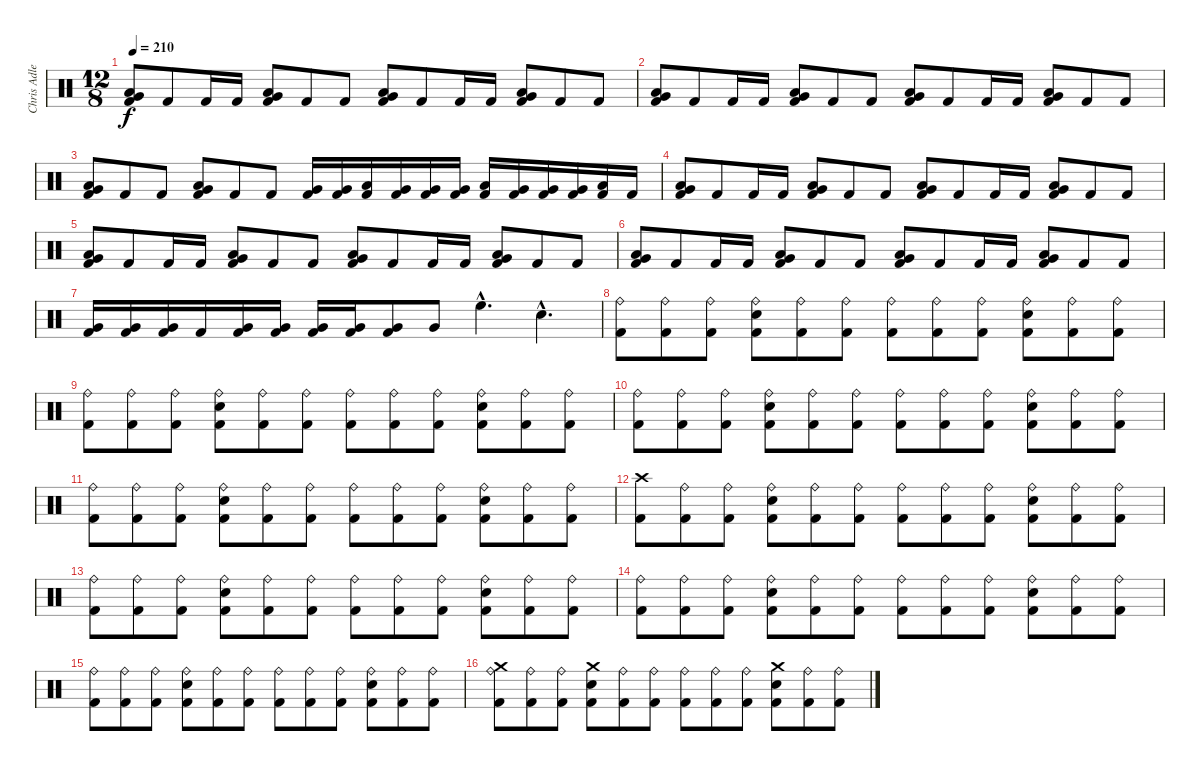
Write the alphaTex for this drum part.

\track ("Chris Adler" "Chris Adle") {instrument percussion}
\staff {score}
\articulation defaults
\ts (12 8)
\tempo 210
\clef neutral
\ks c
("Very Low Tom (hit)" "Low Tom (hit)" "Kick (hit) 2").8{dy f} "Kick (hit) 2".8 "Kick (hit) 2".16 "Kick (hit) 2".16 ("Very Low Tom (hit)" "Low Tom (hit)" "Kick (hit) 2").8 "Kick (hit) 2".8 "Kick (hit) 2".8 ("Very Low Tom (hit)" "Low Tom (hit)" "Kick (hit) 2").8 "Kick (hit) 2".8 "Kick (hit) 2".16 "Kick (hit) 2".16 ("Very Low Tom (hit)" "Low Tom (hit)" "Kick (hit) 2").8 "Kick (hit) 2".8 "Kick (hit) 2".8 |
("Very Low Tom (hit)" "Low Tom (hit)" "Kick (hit) 2").8 "Kick (hit) 2".8 "Kick (hit) 2".16 "Kick (hit) 2".16 ("Very Low Tom (hit)" "Low Tom (hit)" "Kick (hit) 2").8 "Kick (hit) 2".8 "Kick (hit) 2".8 ("Very Low Tom (hit)" "Low Tom (hit)" "Kick (hit) 2").8 "Kick (hit) 2".8 "Kick (hit) 2".16 "Kick (hit) 2".16 ("Very Low Tom (hit)" "Low Tom (hit)" "Kick (hit) 2").8 "Kick (hit) 2".8 "Kick (hit) 2".8 |
("Very Low Tom (hit)" "Low Tom (hit)" "Kick (hit) 2").8 "Kick (hit) 2".8 "Kick (hit) 2".8 ("Very Low Tom (hit)" "Low Tom (hit)" "Kick (hit) 2").8 "Kick (hit) 2".8 "Kick (hit) 2".8 ("Very Low Tom (hit)" "Kick (hit) 2").16 ("Very Low Tom (hit)" "Kick (hit) 2").16 ("Low Tom (hit)" "Kick (hit) 2").16 ("Very Low Tom (hit)" "Kick (hit) 2").16 ("Very Low Tom (hit)" "Kick (hit) 2").16 ("Very Low Tom (hit)" "Kick (hit) 2").16 ("Low Tom (hit)" "Kick (hit) 2").16 ("Very Low Tom (hit)" "Kick (hit) 2").16 ("Very Low Tom (hit)" "Kick (hit) 2").16 ("Very Low Tom (hit)" "Kick (hit) 2").16 ("Low Tom (hit)" "Kick (hit) 2").16 "Kick (hit) 2".16 |
("Very Low Tom (hit)" "Low Tom (hit)" "Kick (hit) 2").8 "Kick (hit) 2".8 "Kick (hit) 2".16 "Kick (hit) 2".16 ("Very Low Tom (hit)" "Low Tom (hit)" "Kick (hit) 2").8 "Kick (hit) 2".8 "Kick (hit) 2".8 ("Very Low Tom (hit)" "Low Tom (hit)" "Kick (hit) 2").8 "Kick (hit) 2".8 "Kick (hit) 2".16 "Kick (hit) 2".16 ("Very Low Tom (hit)" "Low Tom (hit)" "Kick (hit) 2").8 "Kick (hit) 2".8 "Kick (hit) 2".8 |
("Very Low Tom (hit)" "Low Tom (hit)" "Kick (hit) 2").8 "Kick (hit) 2".8 "Kick (hit) 2".16 "Kick (hit) 2".16 ("Very Low Tom (hit)" "Low Tom (hit)" "Kick (hit) 2").8 "Kick (hit) 2".8 "Kick (hit) 2".8 ("Very Low Tom (hit)" "Low Tom (hit)" "Kick (hit) 2").8 "Kick (hit) 2".8 "Kick (hit) 2".16 "Kick (hit) 2".16 ("Very Low Tom (hit)" "Low Tom (hit)" "Kick (hit) 2").8 "Kick (hit) 2".8 "Kick (hit) 2".8 |
("Very Low Tom (hit)" "Low Tom (hit)" "Kick (hit) 2").8 "Kick (hit) 2".8 "Kick (hit) 2".16 "Kick (hit) 2".16 ("Very Low Tom (hit)" "Low Tom (hit)" "Kick (hit) 2").8 "Kick (hit) 2".8 "Kick (hit) 2".8 ("Very Low Tom (hit)" "Low Tom (hit)" "Kick (hit) 2").8 "Kick (hit) 2".8 "Kick (hit) 2".16 "Kick (hit) 2".16 ("Very Low Tom (hit)" "Low Tom (hit)" "Kick (hit) 2").8 "Kick (hit) 2".8 "Kick (hit) 2".8 |
("Very Low Tom (hit)" "Kick (hit) 2").16 ("Very Low Tom (hit)" "Kick (hit) 2").16 ("Very Low Tom (hit)" "Kick (hit) 2").16 "Kick (hit) 2".16 ("Very Low Tom (hit)" "Kick (hit) 2").16 ("Very Low Tom (hit)" "Kick (hit) 2").16 ("Very Low Tom (hit)" "Kick (hit) 2").16 ("Very Low Tom (hit)" "Kick (hit) 2").16 ("Very Low Tom (hit)" "Kick (hit) 2").8 "Very Low Tom (hit)".8 "High Floor Tom (hit)"{hac}.4{d} "Snare (hit) 2"{hac}.4{d} |
("Ride (bell)" "Kick (hit) 2").8 ("Ride (bell)" "Kick (hit) 2").8 ("Ride (bell)" "Kick (hit) 2").8 ("Ride (bell)" "Snare (hit) 2" "Kick (hit) 2").8 ("Ride (bell)" "Kick (hit) 2").8 ("Ride (bell)" "Kick (hit) 2").8 ("Ride (bell)" "Kick (hit) 2").8 ("Ride (bell)" "Kick (hit) 2").8 ("Ride (bell)" "Kick (hit) 2").8 ("Ride (bell)" "Snare (hit) 2" "Kick (hit) 2").8 ("Ride (bell)" "Kick (hit) 2").8 ("Ride (bell)" "Kick (hit) 2").8 |
("Ride (bell)" "Kick (hit) 2").8 ("Ride (bell)" "Kick (hit) 2").8 ("Ride (bell)" "Kick (hit) 2").8 ("Ride (bell)" "Snare (hit) 2" "Kick (hit) 2").8 ("Ride (bell)" "Kick (hit) 2").8 ("Ride (bell)" "Kick (hit) 2").8 ("Ride (bell)" "Kick (hit) 2").8 ("Ride (bell)" "Kick (hit) 2").8 ("Ride (bell)" "Kick (hit) 2").8 ("Ride (bell)" "Snare (hit) 2" "Kick (hit) 2").8 ("Ride (bell)" "Kick (hit) 2").8 ("Ride (bell)" "Kick (hit) 2").8 |
("Ride (bell)" "Kick (hit) 2").8 ("Ride (bell)" "Kick (hit) 2").8 ("Ride (bell)" "Kick (hit) 2").8 ("Ride (bell)" "Snare (hit) 2" "Kick (hit) 2").8 ("Ride (bell)" "Kick (hit) 2").8 ("Ride (bell)" "Kick (hit) 2").8 ("Ride (bell)" "Kick (hit) 2").8 ("Ride (bell)" "Kick (hit) 2").8 ("Ride (bell)" "Kick (hit) 2").8 ("Ride (bell)" "Snare (hit) 2" "Kick (hit) 2").8 ("Ride (bell)" "Kick (hit) 2").8 ("Ride (bell)" "Kick (hit) 2").8 |
("Ride (bell)" "Kick (hit) 2").8 ("Ride (bell)" "Kick (hit) 2").8 ("Ride (bell)" "Kick (hit) 2").8 ("Ride (bell)" "Snare (hit) 2" "Kick (hit) 2").8 ("Ride (bell)" "Kick (hit) 2").8 ("Ride (bell)" "Kick (hit) 2").8 ("Ride (bell)" "Kick (hit) 2").8 ("Ride (bell)" "Kick (hit) 2").8 ("Ride (bell)" "Kick (hit) 2").8 ("Ride (bell)" "Snare (hit) 2" "Kick (hit) 2").8 ("Ride (bell)" "Kick (hit) 2").8 ("Ride (bell)" "Kick (hit) 2").8 |
("Crash high (hit)" "Kick (hit) 2").8 ("Ride (bell)" "Kick (hit) 2").8 ("Ride (bell)" "Kick (hit) 2").8 ("Ride (bell)" "Snare (hit) 2" "Kick (hit) 2").8 ("Ride (bell)" "Kick (hit) 2").8 ("Ride (bell)" "Kick (hit) 2").8 ("Ride (bell)" "Kick (hit) 2").8 ("Ride (bell)" "Kick (hit) 2").8 ("Ride (bell)" "Kick (hit) 2").8 ("Ride (bell)" "Snare (hit) 2" "Kick (hit) 2").8 ("Ride (bell)" "Kick (hit) 2").8 ("Ride (bell)" "Kick (hit) 2").8 |
("Ride (bell)" "Kick (hit) 2").8 ("Ride (bell)" "Kick (hit) 2").8 ("Ride (bell)" "Kick (hit) 2").8 ("Ride (bell)" "Snare (hit) 2" "Kick (hit) 2").8 ("Ride (bell)" "Kick (hit) 2").8 ("Ride (bell)" "Kick (hit) 2").8 ("Ride (bell)" "Kick (hit) 2").8 ("Ride (bell)" "Kick (hit) 2").8 ("Ride (bell)" "Kick (hit) 2").8 ("Ride (bell)" "Snare (hit) 2" "Kick (hit) 2").8 ("Ride (bell)" "Kick (hit) 2").8 ("Ride (bell)" "Kick (hit) 2").8 |
("Ride (bell)" "Kick (hit) 2").8 ("Ride (bell)" "Kick (hit) 2").8 ("Ride (bell)" "Kick (hit) 2").8 ("Ride (bell)" "Snare (hit) 2" "Kick (hit) 2").8 ("Ride (bell)" "Kick (hit) 2").8 ("Ride (bell)" "Kick (hit) 2").8 ("Ride (bell)" "Kick (hit) 2").8 ("Ride (bell)" "Kick (hit) 2").8 ("Ride (bell)" "Kick (hit) 2").8 ("Ride (bell)" "Snare (hit) 2" "Kick (hit) 2").8 ("Ride (bell)" "Kick (hit) 2").8 ("Ride (bell)" "Kick (hit) 2").8 |
("Ride (bell)" "Kick (hit) 2").8 ("Ride (bell)" "Kick (hit) 2").8 ("Ride (bell)" "Kick (hit) 2").8 ("Ride (bell)" "Snare (hit) 2" "Kick (hit) 2").8 ("Ride (bell)" "Kick (hit) 2").8 ("Ride (bell)" "Kick (hit) 2").8 ("Ride (bell)" "Kick (hit) 2").8 ("Ride (bell)" "Kick (hit) 2").8 ("Ride (bell)" "Kick (hit) 2").8 ("Ride (bell)" "Snare (hit) 2" "Kick (hit) 2").8 ("Ride (bell)" "Kick (hit) 2").8 ("Ride (bell)" "Kick (hit) 2").8 |
("Crash medium (hit)" "Ride (bell)" "Kick (hit) 2").8 ("Ride (bell)" "Kick (hit) 2").8 ("Ride (bell)" "Kick (hit) 2").8 ("Crash medium (hit)" "Snare (hit) 2" "Kick (hit) 2").8 ("Ride (bell)" "Kick (hit) 2").8 ("Ride (bell)" "Kick (hit) 2").8 ("Ride (bell)" "Kick (hit) 2").8 ("Ride (bell)" "Kick (hit) 2").8 ("Ride (bell)" "Kick (hit) 2").8 ("Crash medium (hit)" "Snare (hit) 2" "Kick (hit) 2").8 ("Ride (bell)" "Kick (hit) 2").8 ("Ride (bell)" "Kick (hit) 2").8
